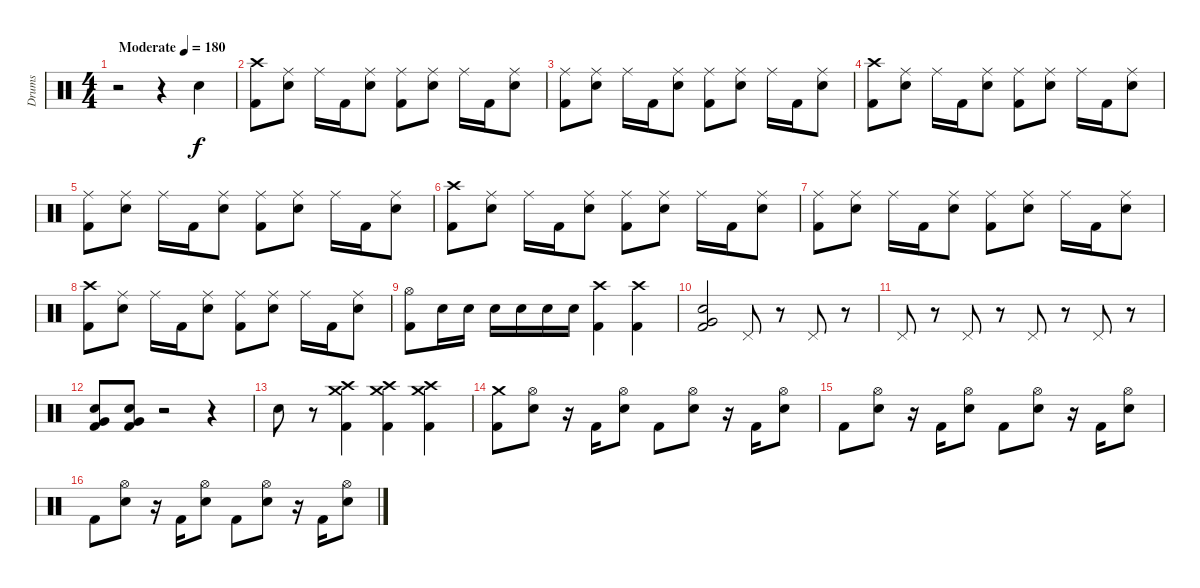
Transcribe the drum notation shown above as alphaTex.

\track ("Drums" "Drums") {instrument percussion}
\staff {score}
\articulation defaults
\ts (4 4)
\tempo (180 "Moderate")
\clef neutral
\ks c
r.2{dy f} r.4 "Electric Snare (hit)".4 |
("Crash high (hit)" "Kick (hit) 2").8 ("Ride (middle)" "Electric Snare (hit)").8 "Ride (middle)".16 "Kick (hit) 2".16 ("Ride (middle)" "Electric Snare (hit)").8 ("Ride (middle)" "Kick (hit) 2").8 ("Ride (middle)" "Electric Snare (hit)").8 "Ride (middle)".16 "Kick (hit) 2".16 ("Ride (middle)" "Electric Snare (hit)").8 |
("Ride (middle)" "Kick (hit) 2").8 ("Ride (middle)" "Electric Snare (hit)").8 "Ride (middle)".16 "Kick (hit) 2".16 ("Ride (middle)" "Electric Snare (hit)").8 ("Ride (middle)" "Kick (hit) 2").8 ("Ride (middle)" "Electric Snare (hit)").8 "Ride (middle)".16 "Kick (hit) 2".16 ("Ride (middle)" "Electric Snare (hit)").8 |
("Crash high (hit)" "Kick (hit) 2").8 ("Ride (middle)" "Electric Snare (hit)").8 "Ride (middle)".16 "Kick (hit) 2".16 ("Ride (middle)" "Electric Snare (hit)").8 ("Ride (middle)" "Kick (hit) 2").8 ("Ride (middle)" "Electric Snare (hit)").8 "Ride (middle)".16 "Kick (hit) 2".16 ("Ride (middle)" "Electric Snare (hit)").8 |
("Ride (middle)" "Kick (hit) 2").8 ("Ride (middle)" "Electric Snare (hit)").8 "Ride (middle)".16 "Kick (hit) 2".16 ("Ride (middle)" "Electric Snare (hit)").8 ("Ride (middle)" "Kick (hit) 2").8 ("Ride (middle)" "Electric Snare (hit)").8 "Ride (middle)".16 "Kick (hit) 2".16 ("Ride (middle)" "Electric Snare (hit)").8 |
("Crash high (hit)" "Kick (hit) 2").8 ("Ride (middle)" "Electric Snare (hit)").8 "Ride (middle)".16 "Kick (hit) 2".16 ("Ride (middle)" "Electric Snare (hit)").8 ("Ride (middle)" "Kick (hit) 2").8 ("Ride (middle)" "Electric Snare (hit)").8 "Ride (middle)".16 "Kick (hit) 2".16 ("Ride (middle)" "Electric Snare (hit)").8 |
("Ride (middle)" "Kick (hit) 2").8 ("Ride (middle)" "Electric Snare (hit)").8 "Ride (middle)".16 "Kick (hit) 2".16 ("Ride (middle)" "Electric Snare (hit)").8 ("Ride (middle)" "Kick (hit) 2").8 ("Ride (middle)" "Electric Snare (hit)").8 "Ride (middle)".16 "Kick (hit) 2".16 ("Ride (middle)" "Electric Snare (hit)").8 |
("Crash high (hit)" "Kick (hit) 2").8 ("Ride (middle)" "Electric Snare (hit)").8 "Ride (middle)".16 "Kick (hit) 2".16 ("Ride (middle)" "Electric Snare (hit)").8 ("Ride (middle)" "Kick (hit) 2").8 ("Ride (middle)" "Electric Snare (hit)").8 "Ride (middle)".16 "Kick (hit) 2".16 ("Ride (middle)" "Electric Snare (hit)").8 |
("Hi-Hat (open)" "Kick (hit) 2").8 "Electric Snare (hit)".16 "Electric Snare (hit)".16 "Electric Snare (hit)".16 "Electric Snare (hit)".16 "Electric Snare (hit)".16 "Electric Snare (hit)".16 ("Crash high (hit)" "Kick (hit) 2").4 ("Crash high (hit)" "Kick (hit) 2").4 |
("Very Low Tom (hit)" "Electric Snare (hit)" "Kick (hit) 2").2 "Pedal Hi-Hat (hit)".8 r.8 "Pedal Hi-Hat (hit)".8 r.8 |
"Pedal Hi-Hat (hit)".8 r.8 "Pedal Hi-Hat (hit)".8 r.8 "Pedal Hi-Hat (hit)".8 r.8 "Pedal Hi-Hat (hit)".8 r.8 |
("Very Low Tom (hit)" "Electric Snare (hit)" "Kick (hit) 2").8 ("Very Low Tom (hit)" "Electric Snare (hit)" "Kick (hit) 2").8 r.2 r.4 |
"Electric Snare (hit)".8 r.8 ("Crash high (hit)" "Crash medium (hit)" "Kick (hit) 2").4 ("Crash high (hit)" "Crash medium (hit)" "Kick (hit) 2").4 ("Crash high (hit)" "Crash medium (hit)" "Kick (hit) 2").4 |
("Crash medium (hit)" "Kick (hit) 2").8 ("Hi-Hat (open)" "Electric Snare (hit)").8 r.16 "Kick (hit) 2".16 ("Hi-Hat (open)" "Electric Snare (hit)").8 "Kick (hit) 2".8 ("Hi-Hat (open)" "Electric Snare (hit)").8 r.16 "Kick (hit) 2".16 ("Hi-Hat (open)" "Electric Snare (hit)").8 |
"Kick (hit) 2".8 ("Hi-Hat (open)" "Electric Snare (hit)").8 r.16 "Kick (hit) 2".16 ("Hi-Hat (open)" "Electric Snare (hit)").8 "Kick (hit) 2".8 ("Hi-Hat (open)" "Electric Snare (hit)").8 r.16 "Kick (hit) 2".16 ("Hi-Hat (open)" "Electric Snare (hit)").8 |
"Kick (hit) 2".8 ("Hi-Hat (open)" "Electric Snare (hit)").8 r.16 "Kick (hit) 2".16 ("Hi-Hat (open)" "Electric Snare (hit)").8 "Kick (hit) 2".8 ("Hi-Hat (open)" "Electric Snare (hit)").8 r.16 "Kick (hit) 2".16 ("Hi-Hat (open)" "Electric Snare (hit)").8
